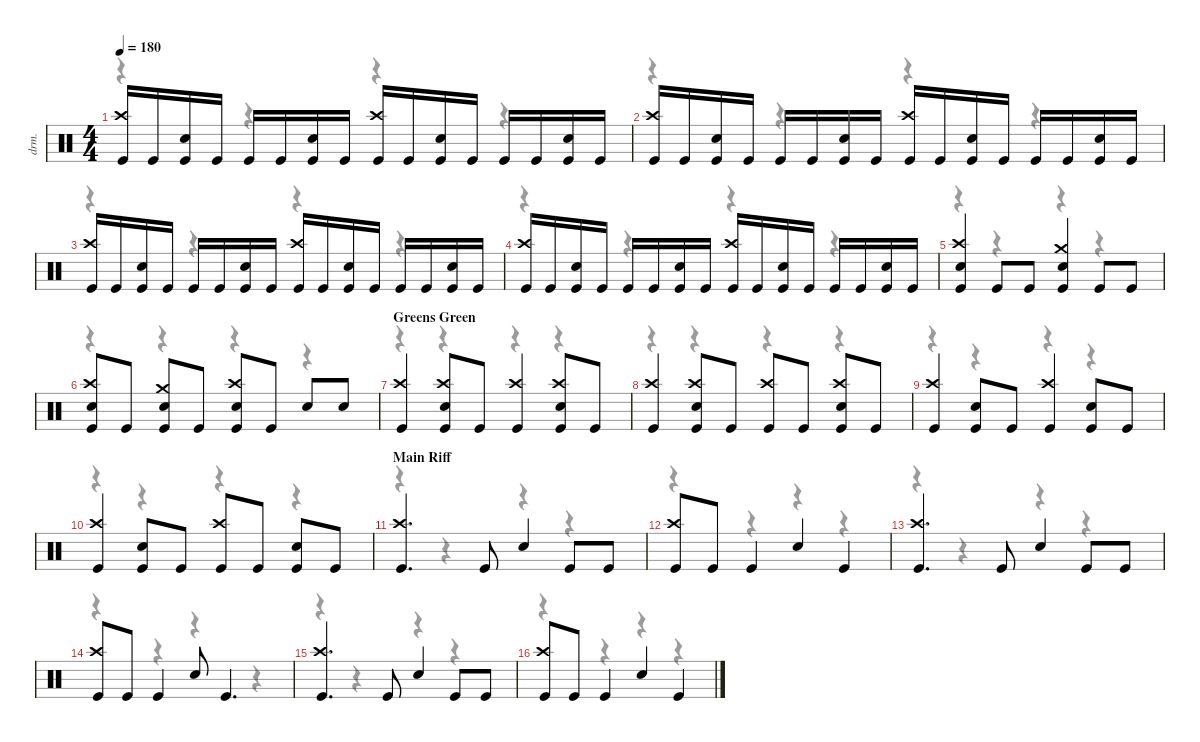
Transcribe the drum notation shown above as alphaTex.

\defaultSystemsLayout 4
\hideDynamics
\bracketExtendMode nobrackets
\track ("Drums" "drm.") {instrument percussion}
\staff {score}
\articulation defaults
\voice
\ts (4 4)
\tempo 180
\clef neutral
\ks c
("Crash high (hit)" "Kick (hit)").16{dy f} "Kick (hit)".16 ("Snare (hit) 2" "Kick (hit)").16 "Kick (hit)".16 "Kick (hit)".16 "Kick (hit)".16 ("Snare (hit) 2" "Kick (hit)").16 "Kick (hit)".16 ("Crash high (hit)" "Kick (hit)").16 "Kick (hit)".16 ("Snare (hit) 2" "Kick (hit)").16 "Kick (hit)".16 "Kick (hit)".16 "Kick (hit)".16 ("Snare (hit) 2" "Kick (hit)").16 "Kick (hit)".16 |
("Crash high (hit)" "Kick (hit)").16 "Kick (hit)".16 ("Snare (hit) 2" "Kick (hit)").16 "Kick (hit)".16 "Kick (hit)".16 "Kick (hit)".16 ("Snare (hit) 2" "Kick (hit)").16 "Kick (hit)".16 ("Crash high (hit)" "Kick (hit)").16 "Kick (hit)".16 ("Snare (hit) 2" "Kick (hit)").16 "Kick (hit)".16 "Kick (hit)".16 "Kick (hit)".16 ("Snare (hit) 2" "Kick (hit)").16 "Kick (hit)".16 |
("Crash high (hit)" "Kick (hit)").16 "Kick (hit)".16 ("Snare (hit) 2" "Kick (hit)").16 "Kick (hit)".16 "Kick (hit)".16 "Kick (hit)".16 ("Snare (hit) 2" "Kick (hit)").16 "Kick (hit)".16 ("Crash high (hit)" "Kick (hit)").16 "Kick (hit)".16 ("Snare (hit) 2" "Kick (hit)").16 "Kick (hit)".16 "Kick (hit)".16 "Kick (hit)".16 ("Snare (hit) 2" "Kick (hit)").16 "Kick (hit)".16 |
("Crash high (hit)" "Kick (hit)").16 "Kick (hit)".16 ("Snare (hit) 2" "Kick (hit)").16 "Kick (hit)".16 "Kick (hit)".16 "Kick (hit)".16 ("Snare (hit) 2" "Kick (hit)").16 "Kick (hit)".16 ("Crash high (hit)" "Kick (hit)").16 "Kick (hit)".16 ("Snare (hit) 2" "Kick (hit)").16 "Kick (hit)".16 "Kick (hit)".16 "Kick (hit)".16 ("Snare (hit) 2" "Kick (hit)").16 "Kick (hit)".16 |
("Crash high (hit)" "Snare (hit) 2" "Kick (hit)").4 "Kick (hit)".8 "Kick (hit)".8 ("Crash medium (hit)" "Snare (hit) 2" "Kick (hit)").4 "Kick (hit)".8 "Kick (hit)".8 |
("Crash high (hit)" "Snare (hit) 2" "Kick (hit)").8 "Kick (hit)".8 ("Crash medium (hit)" "Snare (hit) 2" "Kick (hit)").8 "Kick (hit)".8 ("Crash high (hit)" "Snare (hit) 2" "Kick (hit)").8 "Kick (hit)".8 "Snare (hit) 2".8 "Snare (hit) 2".8 |
\section ("" "Greens Green")
("Crash high (hit)" "Kick (hit)").4 ("Crash high (hit)" "Snare (hit) 2" "Kick (hit)").8 "Kick (hit)".8 ("Crash high (hit)" "Kick (hit)").4 ("Crash high (hit)" "Snare (hit) 2" "Kick (hit)").8 "Kick (hit)".8 |
("Crash high (hit)" "Kick (hit)").4 ("Crash high (hit)" "Snare (hit) 2" "Kick (hit)").8 "Kick (hit)".8 ("Crash high (hit)" "Kick (hit)").8 "Kick (hit)".8 ("Crash high (hit)" "Snare (hit) 2" "Kick (hit)").8 "Kick (hit)".8 |
("Crash high (hit)" "Kick (hit)").4 ("Snare (hit) 2" "Kick (hit)").8 "Kick (hit)".8 ("Crash high (hit)" "Kick (hit)").4 ("Snare (hit) 2" "Kick (hit)").8 "Kick (hit)".8 |
("Crash high (hit)" "Kick (hit)").4 ("Snare (hit) 2" "Kick (hit)").8 "Kick (hit)".8 ("Crash high (hit)" "Kick (hit)").8 "Kick (hit)".8 ("Snare (hit) 2" "Kick (hit)").8 "Kick (hit)".8 |
\section ("" "Main Riff")
("Crash high (hit)" "Kick (hit)").4{d} "Kick (hit)".8 "Snare (hit) 2".4 "Kick (hit)".8 "Kick (hit)".8 |
("Crash high (hit)" "Kick (hit)").8 "Kick (hit)".8 "Kick (hit)".4 "Snare (hit) 2".4 "Kick (hit)".4 |
("Crash high (hit)" "Kick (hit)").4{d} "Kick (hit)".8 "Snare (hit) 2".4 "Kick (hit)".8 "Kick (hit)".8 |
("Crash high (hit)" "Kick (hit)").8 "Kick (hit)".8 "Kick (hit)".4 "Snare (hit) 2".8 "Kick (hit)".4{d} |
("Crash high (hit)" "Kick (hit)").4{d} "Kick (hit)".8 "Snare (hit) 2".4 "Kick (hit)".8 "Kick (hit)".8 |
("Crash high (hit)" "Kick (hit)").8 "Kick (hit)".8 "Kick (hit)".4 "Snare (hit) 2".4 "Kick (hit)".4
\voice
\clef neutral
\ottava regular
\simile none
\ks c
r.4{dy mf} r.4 r.4 r.4 |
r.4 r.4 r.4 r.4 |
r.4 r.4 r.4 r.4 |
r.4 r.4 r.4 r.4 |
r.4 r.4 r.4 r.4 |
r.4 r.4 r.4 r.4 |
r.4 r.4 r.4 r.4 |
r.4 r.4 r.4 r.4 |
r.4 r.4 r.4 r.4 |
r.4 r.4 r.4 r.4 |
r.4 r.4 r.4 r.4 |
r.4 r.4 r.4 r.4 |
r.4 r.4 r.4 r.4 |
r.4 r.4 r.4 r.4 |
r.4 r.4 r.4 r.4 |
r.4 r.4 r.4 r.4
